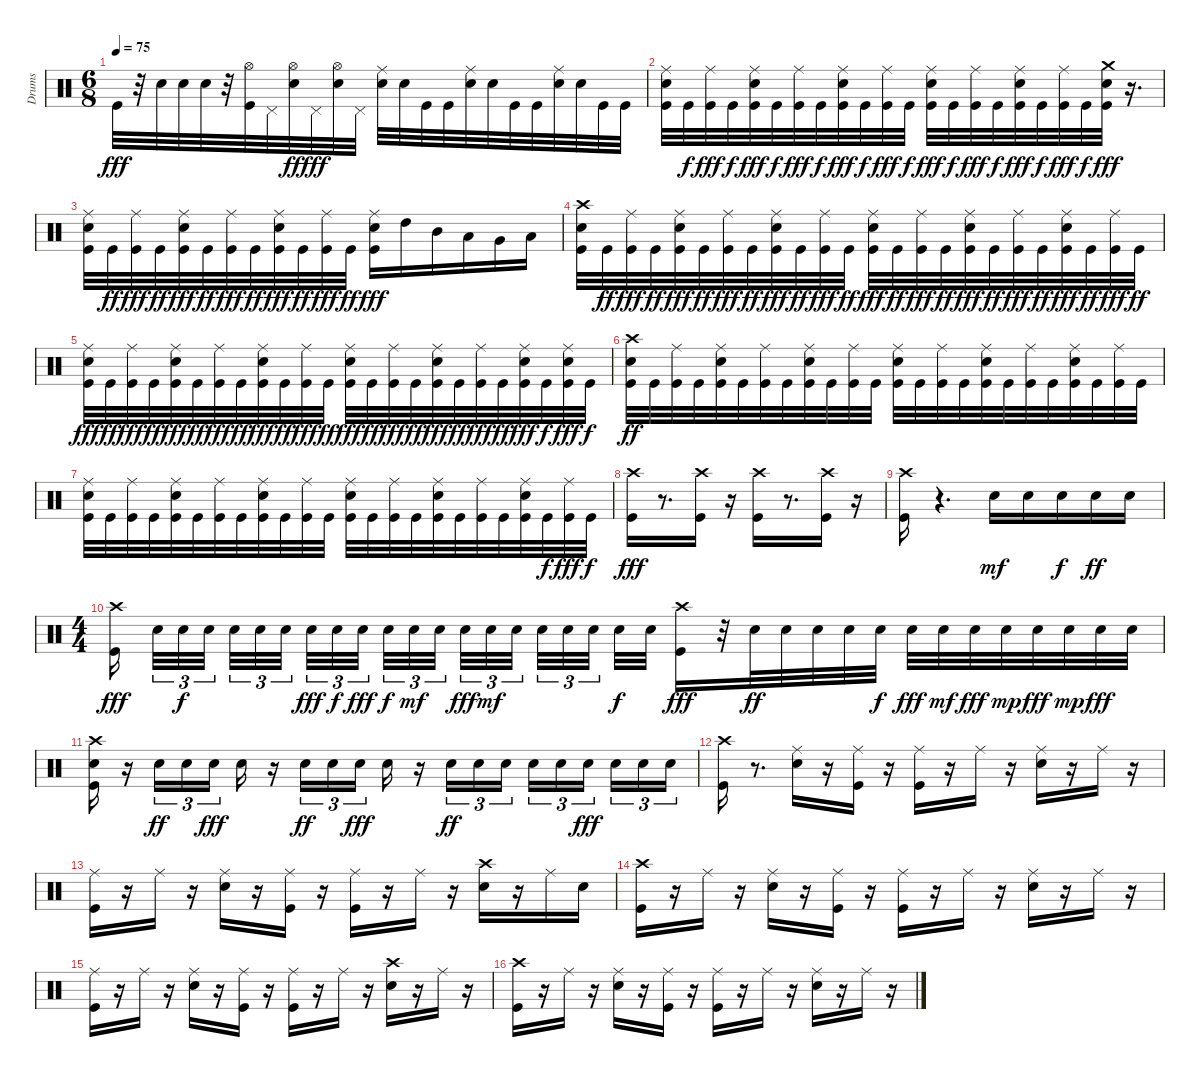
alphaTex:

\track ("Drums" "Drums") {instrument percussion}
\staff {score}
\articulation defaults
\ts (6 8)
\tempo 75
\clef neutral
\ks c "Kick (hit)".32{dy fff}
r.32 "Snare (hit) 2".32 "Snare (hit) 2".32 "Snare (hit) 2".32 r.32 ("Kick (hit)" "Hi-Hat (open)").32 "Pedal Hi-Hat (hit)".32 ("Hi-Hat (open)" "Snare (hit) 2").32{dy ff} "Pedal Hi-Hat (hit)".32{dy fff} ("Hi-Hat (open)" "Snare (hit) 2").32 "Pedal Hi-Hat (hit)".32 ("Ride (middle)" "Snare (hit) 2").32 "Snare (hit) 2".32 "Kick (hit)".32 "Kick (hit)".32 ("Ride (middle)" "Snare (hit) 2").32 "Snare (hit) 2".32 "Kick (hit)".32 "Kick (hit)".32 ("Ride (middle)" "Snare (hit) 2").32 "Snare (hit) 2".32 "Kick (hit)".32 "Kick (hit)".32 |
("Kick (hit)" "Snare (hit) 2" "Ride (middle)").32 "Kick (hit)".32{dy f} ("Kick (hit)" "Ride (middle)").32{dy fff} "Kick (hit)".32{dy f} ("Kick (hit)" "Snare (hit) 2" "Ride (middle)").32{dy fff} "Kick (hit)".32{dy f} ("Kick (hit)" "Ride (middle)").32{dy fff} "Kick (hit)".32{dy f} ("Kick (hit)" "Snare (hit) 2" "Ride (middle)").32{dy fff} "Kick (hit)".32{dy f} ("Kick (hit)" "Ride (middle)").32{dy fff} "Kick (hit)".32{dy f} ("Kick (hit)" "Snare (hit) 2" "Ride (middle)").32{dy fff} "Kick (hit)".32{dy f} ("Kick (hit)" "Ride (middle)").32{dy fff} "Kick (hit)".32{dy f} ("Kick (hit)" "Snare (hit) 2" "Ride (middle)").32{dy fff} "Kick (hit)".32{dy f} ("Kick (hit)" "Ride (middle)").32{dy fff} "Kick (hit)".32{dy f} ("Kick (hit)" "Snare (hit) 2" "Crash medium (hit)").32{dy fff} r.16{d} |
("Kick (hit)" "Snare (hit) 2" "Ride (middle)").32 "Kick (hit)".32{dy ff} ("Kick (hit)" "Ride (middle)").32{dy fff} "Kick (hit)".32{dy ff} ("Kick (hit)" "Snare (hit) 2" "Ride (middle)").32{dy fff} "Kick (hit)".32{dy ff} ("Kick (hit)" "Ride (middle)").32{dy fff} "Kick (hit)".32{dy ff} ("Kick (hit)" "Snare (hit) 2" "Ride (middle)").32{dy fff} "Kick (hit)".32{dy ff} ("Kick (hit)" "Ride (middle)").32{dy fff} "Kick (hit)".32{dy ff} ("Kick (hit)" "Snare (hit) 2" "Ride (middle)").16{dy fff} "High Tom (hit)".16 "Mid Tom (hit)".16 "Low Tom (hit)".16 "Very Low Tom (hit)".16 "Low Floor Tom (hit)".16 |
("Kick (hit)" "Crash high (hit)" "Snare (hit) 2").32 "Kick (hit)".32{dy ff} ("Kick (hit)" "Ride (middle)").32{dy fff} "Kick (hit)".32{dy ff} ("Kick (hit)" "Ride (middle)" "Snare (hit) 2").32{dy fff} "Kick (hit)".32{dy ff} ("Kick (hit)" "Ride (middle)").32{dy fff} "Kick (hit)".32{dy ff} ("Snare (hit) 2" "Kick (hit)" "Ride (middle)").32{dy fff} "Kick (hit)".32{dy ff} ("Kick (hit)" "Ride (middle)").32{dy fff} "Kick (hit)".32{dy ff} ("Kick (hit)" "Ride (middle)" "Snare (hit) 2").32{dy fff} "Kick (hit)".32{dy ff} ("Kick (hit)" "Ride (middle)").32{dy fff} "Kick (hit)".32{dy ff} ("Kick (hit)" "Ride (middle)" "Snare (hit) 2").32{dy fff} "Kick (hit)".32{dy ff} ("Kick (hit)" "Ride (middle)").32{dy fff} "Kick (hit)".32{dy ff} ("Snare (hit) 2" "Kick (hit)" "Ride (middle)").32{dy fff} "Kick (hit)".32{dy ff} ("Kick (hit)" "Ride (middle)").32{dy fff} "Kick (hit)".32{dy ff} |
("Ride (middle)" "Kick (hit)" "Snare (hit) 2").32{dy fff} "Kick (hit)".32{dy ff} ("Kick (hit)" "Ride (middle)").32{dy fff} "Kick (hit)".32{dy ff} ("Kick (hit)" "Snare (hit) 2" "Ride (middle)").32{dy fff} "Kick (hit)".32{dy ff} ("Kick (hit)" "Ride (middle)").32{dy fff} "Kick (hit)".32{dy ff} ("Kick (hit)" "Snare (hit) 2" "Ride (middle)").32{dy fff} "Kick (hit)".32{dy ff} ("Kick (hit)" "Ride (middle)").32{dy fff} "Kick (hit)".32{dy ff} ("Kick (hit)" "Snare (hit) 2" "Ride (middle)").32{dy fff} "Kick (hit)".32{dy ff} ("Kick (hit)" "Ride (middle)").32{dy fff} "Kick (hit)".32{dy ff} ("Kick (hit)" "Snare (hit) 2" "Ride (middle)").32{dy fff} "Kick (hit)".32{dy ff} ("Kick (hit)" "Ride (middle)").32{dy fff} "Kick (hit)".32{dy ff} ("Kick (hit)" "Snare (hit) 2" "Ride (middle)").32{dy fff} "Kick (hit)".32{dy f} ("Kick (hit)" "Snare (hit) 2" "Ride (middle)").32{dy fff} "Kick (hit)".32{dy f} |
("Snare (hit) 2" "Crash high (hit)" "Kick (hit)").32{dy ff} "Kick (hit)".32 ("Ride (middle)" "Kick (hit)").32 "Kick (hit)".32 ("Snare (hit) 2" "Ride (middle)" "Kick (hit)").32 "Kick (hit)".32 ("Ride (middle)" "Kick (hit)").32 "Kick (hit)".32 ("Ride (middle)" "Kick (hit)" "Snare (hit) 2").32 "Kick (hit)".32 ("Ride (middle)" "Kick (hit)").32 "Kick (hit)".32 ("Snare (hit) 2" "Ride (middle)" "Kick (hit)").32 "Kick (hit)".32 ("Ride (middle)" "Kick (hit)").32 "Kick (hit)".32 ("Snare (hit) 2" "Ride (middle)" "Kick (hit)").32 "Kick (hit)".32 ("Ride (middle)" "Kick (hit)").32 "Kick (hit)".32 ("Ride (middle)" "Kick (hit)" "Snare (hit) 2").32 "Kick (hit)".32 ("Ride (middle)" "Kick (hit)").32 "Kick (hit)".32 |
("Ride (middle)" "Snare (hit) 2" "Kick (hit)").32 "Kick (hit)".32 ("Ride (middle)" "Kick (hit)").32 "Kick (hit)".32 ("Ride (middle)" "Snare (hit) 2" "Kick (hit)").32 "Kick (hit)".32 ("Ride (middle)" "Kick (hit)").32 "Kick (hit)".32 ("Ride (middle)" "Snare (hit) 2" "Kick (hit)").32 "Kick (hit)".32 ("Ride (middle)" "Kick (hit)").32 "Kick (hit)".32 ("Ride (middle)" "Snare (hit) 2" "Kick (hit)").32 "Kick (hit)".32 ("Ride (middle)" "Kick (hit)").32 "Kick (hit)".32 ("Ride (middle)" "Snare (hit) 2" "Kick (hit)").32 "Kick (hit)".32 ("Ride (middle)" "Kick (hit)").32 "Kick (hit)".32 ("Ride (middle)" "Snare (hit) 2" "Kick (hit)").32 "Kick (hit)".32{dy f} ("Ride (middle)" "Kick (hit)").32{dy fff} "Kick (hit)".32{dy f} |
("Crash high (hit)" "Kick (hit)").16{dy fff} r.8{d} ("Crash high (hit)" "Kick (hit)").16 r.16 ("Crash high (hit)" "Kick (hit)").16 r.8{d} ("Crash high (hit)" "Kick (hit)").16 r.16 |
("Crash high (hit)" "Kick (hit)").16 r.4{d} "Snare (hit) 2".16{dy mf} "Snare (hit) 2".16 "Snare (hit) 2".16{dy f} "Snare (hit) 2".16{dy ff} "Snare (hit) 2".16 |
\ts (4 4)
("Kick (hit)" "Crash high (hit)").16{dy fff beam splitsecondary} "Snare (hit) 2".32{tu (3 2)} "Snare (hit) 2".32{tu (3 2) dy f} "Snare (hit) 2".32{tu (3 2) beam splitsecondary} "Snare (hit) 2".32{tu (3 2)} "Snare (hit) 2".32{tu (3 2)} "Snare (hit) 2".32{tu (3 2) beam splitsecondary} "Snare (hit) 2".32{tu (3 2) dy fff} "Snare (hit) 2".32{tu (3 2) dy f} "Snare (hit) 2".32{tu (3 2) dy fff} "Snare (hit) 2".32{tu (3 2) dy f} "Snare (hit) 2".32{tu (3 2) dy mf} "Snare (hit) 2".32{tu (3 2) beam splitsecondary} "Snare (hit) 2".32{tu (3 2) dy fff} "Snare (hit) 2".32{tu (3 2) dy mf} "Snare (hit) 2".32{tu (3 2) beam splitsecondary} "Snare (hit) 2".32{tu (3 2)} "Snare (hit) 2".32{tu (3 2)} "Snare (hit) 2".32{tu (3 2) beam splitsecondary} "Snare (hit) 2".32{dy f} "Snare (hit) 2".32 ("Kick (hit)" "Crash high (hit)").16{dy fff} r.32 "Snare (hit) 2".32{dy ff} "Snare (hit) 2".32 "Snare (hit) 2".32 "Snare (hit) 2".32 "Snare (hit) 2".32{dy f} "Snare (hit) 2".32{dy fff} "Snare (hit) 2".32{dy mf} "Snare (hit) 2".32{dy fff} "Snare (hit) 2".32{dy mp} "Snare (hit) 2".32{dy fff} "Snare (hit) 2".32{dy mp} "Snare (hit) 2".32{dy fff} "Snare (hit) 2".32 |
("Snare (hit) 2" "Crash high (hit)" "Kick (hit)").16 r.16 "Snare (hit) 2".16{tu (3 2) dy ff} "Snare (hit) 2".16{tu (3 2)} "Snare (hit) 2".16{tu (3 2) dy fff} "Snare (hit) 2".16 r.16 "Snare (hit) 2".16{tu (3 2) dy ff} "Snare (hit) 2".16{tu (3 2)} "Snare (hit) 2".16{tu (3 2) dy fff} "Snare (hit) 2".16 r.16 "Snare (hit) 2".16{tu (3 2) dy ff} "Snare (hit) 2".16{tu (3 2)} "Snare (hit) 2".16{tu (3 2)} "Snare (hit) 2".16{tu (3 2)} "Snare (hit) 2".16{tu (3 2)} "Snare (hit) 2".16{tu (3 2) dy fff beam splitsecondary} "Snare (hit) 2".16{tu (3 2)} "Snare (hit) 2".16{tu (3 2)} "Snare (hit) 2".16{tu (3 2)} |
("Crash high (hit)" "Kick (hit)").16 r.8{d} ("Ride (middle)" "Snare (hit) 2").16 r.16 ("Ride (middle)" "Kick (hit)").16 r.16 ("Ride (middle)" "Kick (hit)").16 r.16 "Ride (middle)".16 r.16 ("Ride (middle)" "Snare (hit) 2").16 r.16 "Ride (middle)".16 r.16 |
("Ride (middle)" "Kick (hit)").16 r.16 "Ride (middle)".16 r.16 ("Snare (hit) 2" "Ride (middle)").16 r.16 ("Kick (hit)" "Ride (middle)").16 r.16 ("Kick (hit)" "Ride (middle)").16 r.16 "Ride (middle)".16 r.16 ("Crash high (hit)" "Snare (hit) 2").16 r.16 "Ride (middle)".16 "Snare (hit) 2".16 |
("Kick (hit)" "Crash high (hit)").16 r.16 "Ride (middle)".16 r.16 ("Snare (hit) 2" "Ride (middle)").16 r.16 ("Kick (hit)" "Ride (middle)").16 r.16 ("Kick (hit)" "Ride (middle)").16 r.16 "Ride (middle)".16 r.16 ("Snare (hit) 2" "Ride (middle)").16 r.16 "Ride (middle)".16 r.16 |
("Kick (hit)" "Ride (middle)").16 r.16 "Ride (middle)".16 r.16 ("Ride (middle)" "Snare (hit) 2").16 r.16 ("Ride (middle)" "Kick (hit)").16 r.16 ("Ride (middle)" "Kick (hit)").16 r.16 "Ride (middle)".16 r.16 ("Snare (hit) 2" "Crash high (hit)").16 r.16 "Ride (middle)".16 r.16 |
("Crash high (hit)" "Kick (hit)").16 r.16 "Ride (middle)".16 r.16 ("Ride (middle)" "Snare (hit) 2").16 r.16 ("Kick (hit)" "Ride (middle)").16 r.16 ("Kick (hit)" "Ride (middle)").16 r.16 "Ride (middle)".16 r.16 ("Ride (middle)" "Snare (hit) 2").16 r.16 "Ride (middle)".16 r.16
